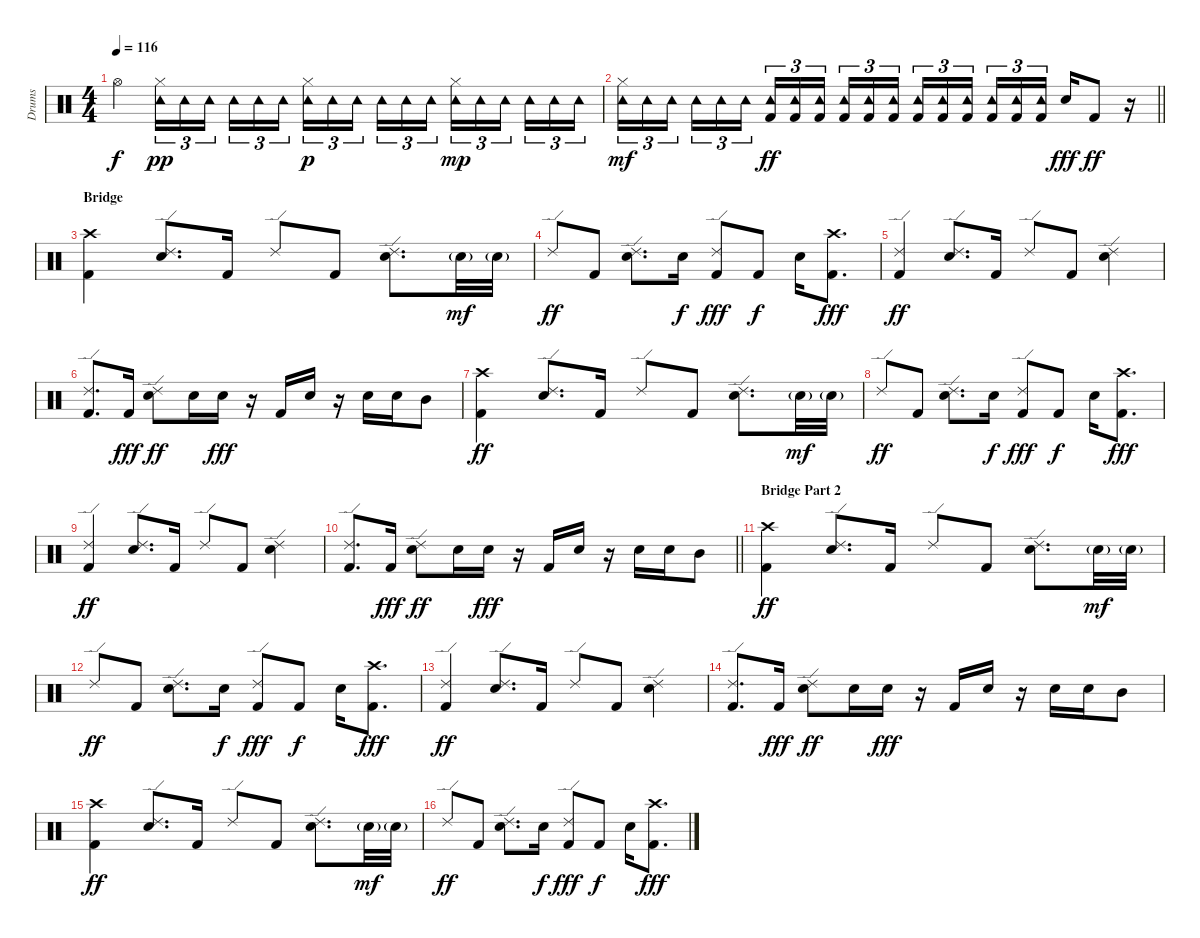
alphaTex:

\track ("Drums" "Drums") {instrument percussion}
\staff {score}
\articulation defaults
\ts (4 4)
\tempo 116
\clef neutral
\ks c "Hi-Hat (open)".4{dy f}
("Tambourine (hit)" "Hi-Hat (closed)").16{tu (3 2) dy pp} "Tambourine (hit)".16{tu (3 2)} "Tambourine (hit)".16{tu (3 2)} "Tambourine (hit)".16{tu (3 2)} "Tambourine (hit)".16{tu (3 2)} "Tambourine (hit)".16{tu (3 2)} ("Tambourine (hit)" "Hi-Hat (closed)").16{tu (3 2) dy p} "Tambourine (hit)".16{tu (3 2)} "Tambourine (hit)".16{tu (3 2)} "Tambourine (hit)".16{tu (3 2)} "Tambourine (hit)".16{tu (3 2)} "Tambourine (hit)".16{tu (3 2)} ("Tambourine (hit)" "Hi-Hat (closed)").16{tu (3 2) dy mp} "Tambourine (hit)".16{tu (3 2)} "Tambourine (hit)".16{tu (3 2)} "Tambourine (hit)".16{tu (3 2)} "Tambourine (hit)".16{tu (3 2)} "Tambourine (hit)".16{tu (3 2)} |
\barLineRight lightlight
("Tambourine (hit)" "Hi-Hat (closed)").16{tu (3 2) dy mf} "Tambourine (hit)".16{tu (3 2)} "Tambourine (hit)".16{tu (3 2)} "Tambourine (hit)".16{tu (3 2)} "Tambourine (hit)".16{tu (3 2)} "Tambourine (hit)".16{tu (3 2)} ("Tambourine (hit)" "Kick (hit) 2").16{tu (3 2) dy ff} ("Tambourine (hit)" "Kick (hit) 2").16{tu (3 2)} ("Tambourine (hit)" "Kick (hit) 2").16{tu (3 2)} ("Tambourine (hit)" "Kick (hit) 2").16{tu (3 2)} ("Tambourine (hit)" "Kick (hit) 2").16{tu (3 2)} ("Tambourine (hit)" "Kick (hit) 2").16{tu (3 2)} ("Tambourine (hit)" "Kick (hit) 2").16{tu (3 2)} ("Tambourine (hit)" "Kick (hit) 2").16{tu (3 2)} ("Tambourine (hit)" "Kick (hit) 2").16{tu (3 2)} ("Tambourine (hit)" "Kick (hit) 2").16{tu (3 2)} ("Tambourine (hit)" "Kick (hit) 2").16{tu (3 2)} ("Tambourine (hit)" "Kick (hit) 2").16{tu (3 2)} "Electric Snare (hit)".16{dy fff} "Kick (hit) 2".8{dy ff} r.16 |
\section ("" "Bridge")
("Crash high (hit)" "Kick (hit) 2").4{volume 13} ("Ride (edge) 2" "Electric Snare (hit)").8{d} "Kick (hit) 2".16 "Ride (edge) 2".8 "Kick (hit) 2".8 ("Ride (edge) 2" "Electric Snare (hit)").8{d} "Electric Snare (hit)"{g}.32{dy mf} "Electric Snare (hit)"{g}.32 |
"Ride (edge) 2".8{dy ff} "Kick (hit) 2".8 ("Ride (edge) 2" "Electric Snare (hit)").8{d} "Electric Snare (hit)".16{dy f} ("Ride (edge) 2" "Kick (hit) 2").8{dy fff} "Kick (hit) 2".8{dy f} "Electric Snare (hit)".16 ("Crash high (hit)" "Kick (hit) 2").8{d dy fff} |
("Ride (edge) 2" "Kick (hit) 2").4{dy ff} ("Ride (edge) 2" "Electric Snare (hit)").8{d} "Kick (hit) 2".16 "Ride (edge) 2".8 "Kick (hit) 2".8 ("Ride (edge) 2" "Electric Snare (hit)").4 |
("Ride (edge) 2" "Kick (hit) 2").8{d} "Kick (hit) 2".16{dy fff} ("Ride (edge) 2" "Electric Snare (hit)").8{dy ff} "Electric Snare (hit)".16 "Electric Snare (hit)".16{dy fff} r.16 "Kick (hit) 2".16 "Electric Snare (hit)".16 r.16 "Electric Snare (hit)".16 "Electric Snare (hit)".16 "Mid Tom (hit)".8 |
("Crash high (hit)" "Kick (hit) 2").4{dy ff} ("Ride (edge) 2" "Electric Snare (hit)").8{d} "Kick (hit) 2".16 "Ride (edge) 2".8 "Kick (hit) 2".8 ("Ride (edge) 2" "Electric Snare (hit)").8{d} "Electric Snare (hit)"{g}.32{dy mf} "Electric Snare (hit)"{g}.32 |
"Ride (edge) 2".8{dy ff} "Kick (hit) 2".8 ("Ride (edge) 2" "Electric Snare (hit)").8{d} "Electric Snare (hit)".16{dy f} ("Ride (edge) 2" "Kick (hit) 2").8{dy fff} "Kick (hit) 2".8{dy f} "Electric Snare (hit)".16 ("Crash high (hit)" "Kick (hit) 2").8{d dy fff} |
("Ride (edge) 2" "Kick (hit) 2").4{dy ff} ("Ride (edge) 2" "Electric Snare (hit)").8{d} "Kick (hit) 2".16 "Ride (edge) 2".8 "Kick (hit) 2".8 ("Ride (edge) 2" "Electric Snare (hit)").4 |
\barLineRight lightlight
("Ride (edge) 2" "Kick (hit) 2").8{d} "Kick (hit) 2".16{dy fff} ("Ride (edge) 2" "Electric Snare (hit)").8{dy ff} "Electric Snare (hit)".16 "Electric Snare (hit)".16{dy fff} r.16 "Kick (hit) 2".16 "Electric Snare (hit)".16 r.16 "Electric Snare (hit)".16 "Electric Snare (hit)".16 "Mid Tom (hit)".8 |
\section ("" "Bridge Part 2")
("Crash high (hit)" "Kick (hit) 2").4{dy ff} ("Ride (edge) 2" "Electric Snare (hit)").8{d} "Kick (hit) 2".16 "Ride (edge) 2".8 "Kick (hit) 2".8 ("Ride (edge) 2" "Electric Snare (hit)").8{d} "Electric Snare (hit)"{g}.32{dy mf} "Electric Snare (hit)"{g}.32 |
"Ride (edge) 2".8{dy ff} "Kick (hit) 2".8 ("Ride (edge) 2" "Electric Snare (hit)").8{d} "Electric Snare (hit)".16{dy f} ("Ride (edge) 2" "Kick (hit) 2").8{dy fff} "Kick (hit) 2".8{dy f} "Electric Snare (hit)".16 ("Crash high (hit)" "Kick (hit) 2").8{d dy fff} |
("Ride (edge) 2" "Kick (hit) 2").4{dy ff} ("Ride (edge) 2" "Electric Snare (hit)").8{d} "Kick (hit) 2".16 "Ride (edge) 2".8 "Kick (hit) 2".8 ("Ride (edge) 2" "Electric Snare (hit)").4 |
("Ride (edge) 2" "Kick (hit) 2").8{d} "Kick (hit) 2".16{dy fff} ("Ride (edge) 2" "Electric Snare (hit)").8{dy ff} "Electric Snare (hit)".16 "Electric Snare (hit)".16{dy fff} r.16 "Kick (hit) 2".16 "Electric Snare (hit)".16 r.16 "Electric Snare (hit)".16 "Electric Snare (hit)".16 "Mid Tom (hit)".8 |
("Crash high (hit)" "Kick (hit) 2").4{dy ff} ("Ride (edge) 2" "Electric Snare (hit)").8{d} "Kick (hit) 2".16 "Ride (edge) 2".8 "Kick (hit) 2".8 ("Ride (edge) 2" "Electric Snare (hit)").8{d} "Electric Snare (hit)"{g}.32{dy mf} "Electric Snare (hit)"{g}.32 |
"Ride (edge) 2".8{dy ff} "Kick (hit) 2".8 ("Ride (edge) 2" "Electric Snare (hit)").8{d} "Electric Snare (hit)".16{dy f} ("Ride (edge) 2" "Kick (hit) 2").8{dy fff} "Kick (hit) 2".8{dy f} "Electric Snare (hit)".16 ("Crash high (hit)" "Kick (hit) 2").8{d dy fff}
